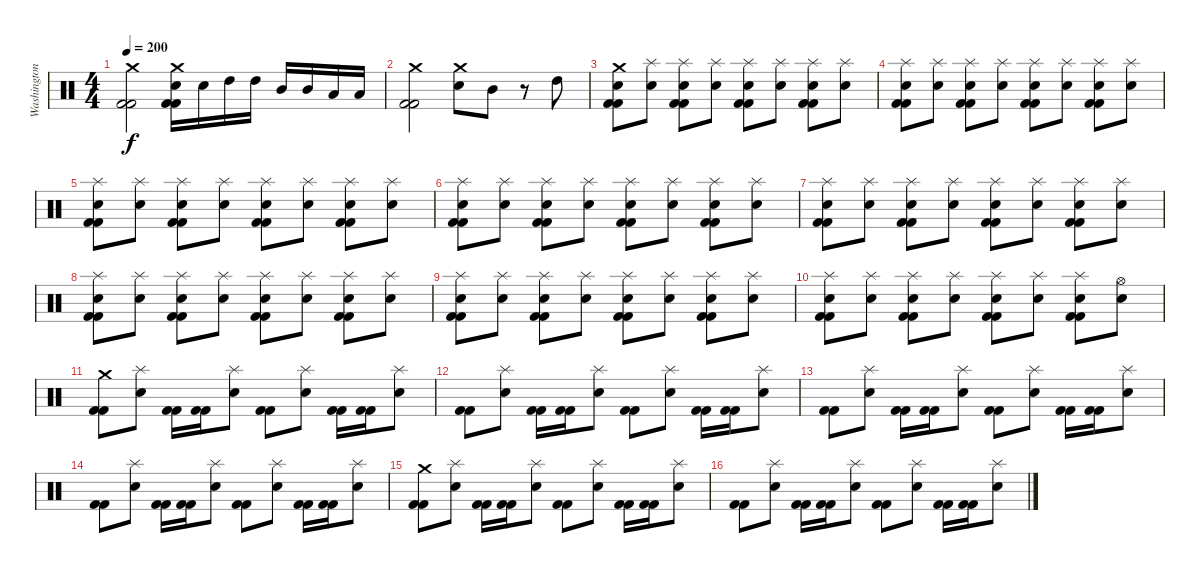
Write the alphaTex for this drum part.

\track ("Washington" "Washington") {instrument percussion}
\staff {score}
\articulation defaults
\ts (4 4)
\tempo 200
\clef neutral
\ks c
("Crash medium (hit)" "Kick (hit) 2" "Kick (hit) 2").2{dy f} ("Crash medium (hit)" "Electric Snare (hit)" "Kick (hit) 2" "Kick (hit) 2").16 "Electric Snare (hit)".16 "High Tom (hit)".16 "High Tom (hit)".16 "Mid Tom (hit)".16 "Mid Tom (hit)".16 "Low Tom (hit)".16 "Low Tom (hit)".16 |
("Crash medium (hit)" "Kick (hit) 2" "Kick (hit) 2").2 ("Crash medium (hit)" "Electric Snare (hit)").8 "Mid Tom (hit)".8 r.8 "High Tom (hit)".8 |
("Crash medium (hit)" "Electric Snare (hit)" "Kick (hit) 2" "Kick (hit) 2").8 ("Splash (hit)" "Electric Snare (hit)").8 ("Splash (hit)" "Electric Snare (hit)" "Kick (hit) 2" "Kick (hit) 2").8 ("Splash (hit)" "Electric Snare (hit)").8 ("Splash (hit)" "Electric Snare (hit)" "Kick (hit) 2" "Kick (hit) 2").8 ("Splash (hit)" "Electric Snare (hit)").8 ("Splash (hit)" "Electric Snare (hit)" "Kick (hit) 2" "Kick (hit) 2").8 ("Splash (hit)" "Electric Snare (hit)").8 |
("Splash (hit)" "Electric Snare (hit)" "Kick (hit) 2" "Kick (hit) 2").8 ("Splash (hit)" "Electric Snare (hit)").8 ("Splash (hit)" "Electric Snare (hit)" "Kick (hit) 2" "Kick (hit) 2").8 ("Splash (hit)" "Electric Snare (hit)").8 ("Splash (hit)" "Electric Snare (hit)" "Kick (hit) 2" "Kick (hit) 2").8 ("Splash (hit)" "Electric Snare (hit)").8 ("Splash (hit)" "Electric Snare (hit)" "Kick (hit) 2" "Kick (hit) 2").8 ("Splash (hit)" "Electric Snare (hit)").8 |
("Splash (hit)" "Electric Snare (hit)" "Kick (hit) 2" "Kick (hit) 2").8 ("Splash (hit)" "Electric Snare (hit)").8 ("Splash (hit)" "Electric Snare (hit)" "Kick (hit) 2" "Kick (hit) 2").8 ("Splash (hit)" "Electric Snare (hit)").8 ("Splash (hit)" "Electric Snare (hit)" "Kick (hit) 2" "Kick (hit) 2").8 ("Splash (hit)" "Electric Snare (hit)").8 ("Splash (hit)" "Electric Snare (hit)" "Kick (hit) 2" "Kick (hit) 2").8 ("Splash (hit)" "Electric Snare (hit)").8 |
("Splash (hit)" "Electric Snare (hit)" "Kick (hit) 2" "Kick (hit) 2").8 ("Splash (hit)" "Electric Snare (hit)").8 ("Splash (hit)" "Electric Snare (hit)" "Kick (hit) 2" "Kick (hit) 2").8 ("Splash (hit)" "Electric Snare (hit)").8 ("Splash (hit)" "Electric Snare (hit)" "Kick (hit) 2" "Kick (hit) 2").8 ("Splash (hit)" "Electric Snare (hit)").8 ("Splash (hit)" "Electric Snare (hit)" "Kick (hit) 2" "Kick (hit) 2").8 ("Splash (hit)" "Electric Snare (hit)").8 |
("Splash (hit)" "Electric Snare (hit)" "Kick (hit) 2" "Kick (hit) 2").8 ("Splash (hit)" "Electric Snare (hit)").8 ("Splash (hit)" "Electric Snare (hit)" "Kick (hit) 2" "Kick (hit) 2").8 ("Splash (hit)" "Electric Snare (hit)").8 ("Splash (hit)" "Electric Snare (hit)" "Kick (hit) 2" "Kick (hit) 2").8 ("Splash (hit)" "Electric Snare (hit)").8 ("Splash (hit)" "Electric Snare (hit)" "Kick (hit) 2" "Kick (hit) 2").8 ("Splash (hit)" "Electric Snare (hit)").8 |
("Splash (hit)" "Electric Snare (hit)" "Kick (hit) 2" "Kick (hit) 2").8 ("Splash (hit)" "Electric Snare (hit)").8 ("Splash (hit)" "Electric Snare (hit)" "Kick (hit) 2" "Kick (hit) 2").8 ("Splash (hit)" "Electric Snare (hit)").8 ("Splash (hit)" "Electric Snare (hit)" "Kick (hit) 2" "Kick (hit) 2").8 ("Splash (hit)" "Electric Snare (hit)").8 ("Splash (hit)" "Electric Snare (hit)" "Kick (hit) 2" "Kick (hit) 2").8 ("Splash (hit)" "Electric Snare (hit)").8 |
("Splash (hit)" "Electric Snare (hit)" "Kick (hit) 2" "Kick (hit) 2").8 ("Splash (hit)" "Electric Snare (hit)").8 ("Splash (hit)" "Electric Snare (hit)" "Kick (hit) 2" "Kick (hit) 2").8 ("Splash (hit)" "Electric Snare (hit)").8 ("Splash (hit)" "Electric Snare (hit)" "Kick (hit) 2" "Kick (hit) 2").8 ("Splash (hit)" "Electric Snare (hit)").8 ("Splash (hit)" "Electric Snare (hit)" "Kick (hit) 2" "Kick (hit) 2").8 ("Splash (hit)" "Electric Snare (hit)").8 |
("Splash (hit)" "Electric Snare (hit)" "Kick (hit) 2" "Kick (hit) 2").8 ("Splash (hit)" "Electric Snare (hit)").8 ("Splash (hit)" "Electric Snare (hit)" "Kick (hit) 2" "Kick (hit) 2").8 ("Splash (hit)" "Electric Snare (hit)").8 ("Splash (hit)" "Electric Snare (hit)" "Kick (hit) 2" "Kick (hit) 2").8 ("Splash (hit)" "Electric Snare (hit)").8 ("Splash (hit)" "Electric Snare (hit)" "Kick (hit) 2" "Kick (hit) 2").8 ("Hi-Hat (open)" "Electric Snare (hit)").8 |
("Crash medium (hit)" "Kick (hit) 2" "Kick (hit) 2").8 ("Splash (hit)" "Electric Snare (hit)").8 ("Kick (hit) 2" "Kick (hit) 2").16 ("Kick (hit) 2" "Kick (hit) 2").16 ("Splash (hit)" "Electric Snare (hit)").8 ("Kick (hit) 2" "Kick (hit) 2").8 ("Splash (hit)" "Electric Snare (hit)").8 ("Kick (hit) 2" "Kick (hit) 2").16 ("Kick (hit) 2" "Kick (hit) 2").16 ("Splash (hit)" "Electric Snare (hit)").8 |
("Kick (hit) 2" "Kick (hit) 2").8 ("Splash (hit)" "Electric Snare (hit)").8 ("Kick (hit) 2" "Kick (hit) 2").16 ("Kick (hit) 2" "Kick (hit) 2").16 ("Splash (hit)" "Electric Snare (hit)").8 ("Kick (hit) 2" "Kick (hit) 2").8 ("Splash (hit)" "Electric Snare (hit)").8 ("Kick (hit) 2" "Kick (hit) 2").16 ("Kick (hit) 2" "Kick (hit) 2").16 ("Splash (hit)" "Electric Snare (hit)").8 |
("Kick (hit) 2" "Kick (hit) 2").8 ("Splash (hit)" "Electric Snare (hit)").8 ("Kick (hit) 2" "Kick (hit) 2").16 ("Kick (hit) 2" "Kick (hit) 2").16 ("Splash (hit)" "Electric Snare (hit)").8 ("Kick (hit) 2" "Kick (hit) 2").8 ("Splash (hit)" "Electric Snare (hit)").8 ("Kick (hit) 2" "Kick (hit) 2").16 ("Kick (hit) 2" "Kick (hit) 2").16 ("Splash (hit)" "Electric Snare (hit)").8 |
("Kick (hit) 2" "Kick (hit) 2").8 ("Splash (hit)" "Electric Snare (hit)").8 ("Kick (hit) 2" "Kick (hit) 2").16 ("Kick (hit) 2" "Kick (hit) 2").16 ("Splash (hit)" "Electric Snare (hit)").8 ("Kick (hit) 2" "Kick (hit) 2").8 ("Splash (hit)" "Electric Snare (hit)").8 ("Kick (hit) 2" "Kick (hit) 2").16 ("Kick (hit) 2" "Kick (hit) 2").16 ("Splash (hit)" "Electric Snare (hit)").8 |
("Crash medium (hit)" "Kick (hit) 2" "Kick (hit) 2").8 ("Splash (hit)" "Electric Snare (hit)").8 ("Kick (hit) 2" "Kick (hit) 2").16 ("Kick (hit) 2" "Kick (hit) 2").16 ("Splash (hit)" "Electric Snare (hit)").8 ("Kick (hit) 2" "Kick (hit) 2").8 ("Splash (hit)" "Electric Snare (hit)").8 ("Kick (hit) 2" "Kick (hit) 2").16 ("Kick (hit) 2" "Kick (hit) 2").16 ("Splash (hit)" "Electric Snare (hit)").8 |
("Kick (hit) 2" "Kick (hit) 2").8 ("Splash (hit)" "Electric Snare (hit)").8 ("Kick (hit) 2" "Kick (hit) 2").16 ("Kick (hit) 2" "Kick (hit) 2").16 ("Splash (hit)" "Electric Snare (hit)").8 ("Kick (hit) 2" "Kick (hit) 2").8 ("Splash (hit)" "Electric Snare (hit)").8 ("Kick (hit) 2" "Kick (hit) 2").16 ("Kick (hit) 2" "Kick (hit) 2").16 ("Splash (hit)" "Electric Snare (hit)").8
